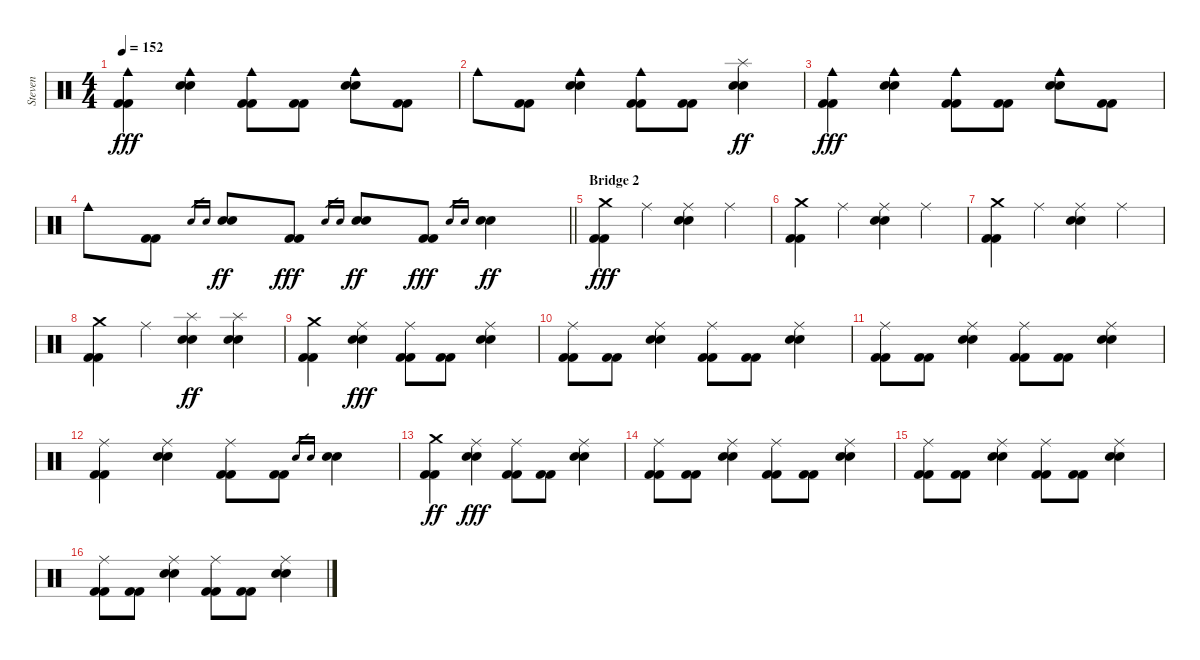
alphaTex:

\track ("Steven" "Steven") {instrument percussion}
\staff {score}
\articulation defaults
\ts (4 4)
\tempo 152
\clef neutral
\ks c
("Cowbell medium (hit)" "Kick (hit) 2" "Kick (hit) 2").4{dy fff} ("Cowbell medium (hit)" "Electric Snare (hit)" "Electric Snare (hit)").4 ("Cowbell medium (hit)" "Kick (hit) 2" "Kick (hit) 2").8 ("Kick (hit) 2" "Kick (hit) 2").8 ("Cowbell medium (hit)" "Electric Snare (hit)" "Electric Snare (hit)").8 ("Kick (hit) 2" "Kick (hit) 2").8 |
"Cowbell medium (hit)".8 ("Kick (hit) 2" "Kick (hit) 2").8 ("Cowbell medium (hit)" "Electric Snare (hit)" "Electric Snare (hit)").4 ("Cowbell medium (hit)" "Kick (hit) 2" "Kick (hit) 2").8 ("Kick (hit) 2" "Kick (hit) 2").8 ("Splash (hit)" "Electric Snare (hit)" "Electric Snare (hit)").4{dy ff} |
("Cowbell medium (hit)" "Kick (hit) 2" "Kick (hit) 2").4{dy fff} ("Cowbell medium (hit)" "Electric Snare (hit)" "Electric Snare (hit)").4 ("Cowbell medium (hit)" "Kick (hit) 2" "Kick (hit) 2").8 ("Kick (hit) 2" "Kick (hit) 2").8 ("Cowbell medium (hit)" "Electric Snare (hit)" "Electric Snare (hit)").8 ("Kick (hit) 2" "Kick (hit) 2").8 |
\barLineRight lightlight "Cowbell medium (hit)".8
("Kick (hit) 2" "Kick (hit) 2").8 "Electric Snare (hit)".16{gr} "Electric Snare (hit)".16{gr} ("Electric Snare (hit)" "Electric Snare (hit)").8{dy ff} ("Kick (hit) 2" "Kick (hit) 2").8{dy fff} "Electric Snare (hit)".16{gr} "Electric Snare (hit)".16{gr} ("Electric Snare (hit)" "Electric Snare (hit)").8{dy ff} ("Kick (hit) 2" "Kick (hit) 2").8{dy fff} "Electric Snare (hit)".16{gr} "Electric Snare (hit)".16{gr} ("Electric Snare (hit)" "Electric Snare (hit)").4{dy ff} |
\section ("" "Bridge 2")
("Crash medium (hit)" "Kick (hit) 2" "Kick (hit) 2").4{dy fff} "Ride (middle)".4 ("Ride (middle)" "Electric Snare (hit)" "Electric Snare (hit)").4 "Ride (middle)".4 |
("Crash medium (hit)" "Kick (hit) 2" "Kick (hit) 2").4 "Ride (middle)".4 ("Ride (middle)" "Electric Snare (hit)" "Electric Snare (hit)").4 "Ride (middle)".4 |
("Crash medium (hit)" "Kick (hit) 2" "Kick (hit) 2").4 "Ride (middle)".4 ("Ride (middle)" "Electric Snare (hit)" "Electric Snare (hit)").4 "Ride (middle)".4 |
("Crash medium (hit)" "Kick (hit) 2" "Kick (hit) 2").4 "Ride (middle)".4 ("Splash (hit)" "Electric Snare (hit)" "Electric Snare (hit)").4{dy ff} ("Splash (hit)" "Electric Snare (hit)" "Electric Snare (hit)").4 |
("Crash medium (hit)" "Kick (hit) 2" "Kick (hit) 2").4 ("Ride (middle)" "Electric Snare (hit)" "Electric Snare (hit)").4{dy fff} ("Ride (middle)" "Kick (hit) 2" "Kick (hit) 2").8 ("Kick (hit) 2" "Kick (hit) 2").8 ("Ride (middle)" "Electric Snare (hit)" "Electric Snare (hit)").4 |
("Ride (middle)" "Kick (hit) 2" "Kick (hit) 2").8 ("Kick (hit) 2" "Kick (hit) 2").8 ("Ride (middle)" "Electric Snare (hit)" "Electric Snare (hit)").4 ("Ride (middle)" "Kick (hit) 2" "Kick (hit) 2").8 ("Kick (hit) 2" "Kick (hit) 2").8 ("Ride (middle)" "Electric Snare (hit)" "Electric Snare (hit)").4 |
("Ride (middle)" "Kick (hit) 2" "Kick (hit) 2").8 ("Kick (hit) 2" "Kick (hit) 2").8 ("Ride (middle)" "Electric Snare (hit)" "Electric Snare (hit)").4 ("Ride (middle)" "Kick (hit) 2" "Kick (hit) 2").8 ("Kick (hit) 2" "Kick (hit) 2").8 ("Ride (middle)" "Electric Snare (hit)" "Electric Snare (hit)").4 |
("Ride (middle)" "Kick (hit) 2" "Kick (hit) 2").4 ("Ride (middle)" "Electric Snare (hit)" "Electric Snare (hit)").4 ("Ride (middle)" "Kick (hit) 2" "Kick (hit) 2").8 ("Kick (hit) 2" "Kick (hit) 2").8 "Electric Snare (hit)".16{gr} "Electric Snare (hit)".16{gr} ("Electric Snare (hit)" "Electric Snare (hit)").4 |
("Crash medium (hit)" "Kick (hit) 2" "Kick (hit) 2").4{dy ff} ("Ride (middle)" "Electric Snare (hit)" "Electric Snare (hit)").4{dy fff} ("Ride (middle)" "Kick (hit) 2" "Kick (hit) 2").8 ("Kick (hit) 2" "Kick (hit) 2").8 ("Ride (middle)" "Electric Snare (hit)" "Electric Snare (hit)").4 |
("Ride (middle)" "Kick (hit) 2" "Kick (hit) 2").8 ("Kick (hit) 2" "Kick (hit) 2").8 ("Ride (middle)" "Electric Snare (hit)" "Electric Snare (hit)").4 ("Ride (middle)" "Kick (hit) 2" "Kick (hit) 2").8 ("Kick (hit) 2" "Kick (hit) 2").8 ("Ride (middle)" "Electric Snare (hit)" "Electric Snare (hit)").4 |
("Ride (middle)" "Kick (hit) 2" "Kick (hit) 2").8 ("Kick (hit) 2" "Kick (hit) 2").8 ("Ride (middle)" "Electric Snare (hit)" "Electric Snare (hit)").4 ("Ride (middle)" "Kick (hit) 2" "Kick (hit) 2").8 ("Kick (hit) 2" "Kick (hit) 2").8 ("Ride (middle)" "Electric Snare (hit)" "Electric Snare (hit)").4 |
("Ride (middle)" "Kick (hit) 2" "Kick (hit) 2").8 ("Kick (hit) 2" "Kick (hit) 2").8 ("Ride (middle)" "Electric Snare (hit)" "Electric Snare (hit)").4 ("Ride (middle)" "Kick (hit) 2" "Kick (hit) 2").8 ("Kick (hit) 2" "Kick (hit) 2").8 ("Ride (middle)" "Electric Snare (hit)" "Electric Snare (hit)").4
